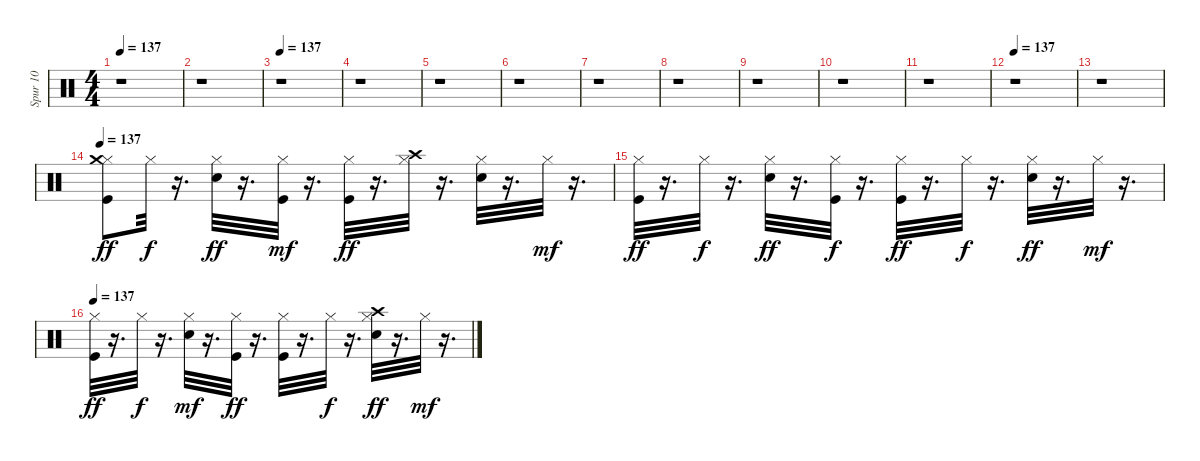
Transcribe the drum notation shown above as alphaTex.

\track ("Spur 10" "Spur 10") {instrument percussion}
\staff {score}
\articulation defaults
\ts (4 4)
\tempo 137
\clef neutral
\ks c
r.1{dy ff} |
r.1 |
\tempo 137
r.1 |
r.1 |
r.1 |
r.1 |
r.1 |
r.1 |
r.1 |
r.1 |
r.1 |
\tempo 137
r.1 |
r.1 |
\tempo 137
("Kick (hit)" "Hi-Hat (closed)" "Crash medium (hit)").8 "Hi-Hat (closed)".32{dy f} r.16{d} ("Electric Snare (hit)" "Hi-Hat (closed)").32{dy ff} r.16{d} ("Kick (hit)" "Hi-Hat (closed)").32{dy mf} r.16{d} ("Kick (hit)" "Hi-Hat (closed)").32{dy ff} r.16{d} ("Crash high (hit)" "Hi-Hat (closed)").32 r.16{d} ("Electric Snare (hit)" "Hi-Hat (closed)").32 r.16{d} "Hi-Hat (closed)".32{dy mf} r.16{d} |
("Kick (hit)" "Hi-Hat (closed)").32{dy ff} r.16{d} "Hi-Hat (closed)".32{dy f} r.16{d} ("Electric Snare (hit)" "Hi-Hat (closed)").32{dy ff} r.16{d} ("Kick (hit)" "Hi-Hat (closed)").32{dy f} r.16{d} ("Kick (hit)" "Hi-Hat (closed)").32{dy ff} r.16{d} "Hi-Hat (closed)".32{dy f} r.16{d} ("Electric Snare (hit)" "Hi-Hat (closed)").32{dy ff} r.16{d} "Hi-Hat (closed)".32{dy mf} r.16{d} |
\tempo 137
("Kick (hit)" "Hi-Hat (closed)").32{dy ff} r.16{d} "Hi-Hat (closed)".32{dy f} r.16{d} ("Electric Snare (hit)" "Hi-Hat (closed)").32{dy mf} r.16{d} ("Kick (hit)" "Hi-Hat (closed)").32{dy ff} r.16{d} ("Kick (hit)" "Hi-Hat (closed)").32 r.16{d} "Hi-Hat (closed)".32{dy f} r.16{d} ("Crash high (hit)" "Electric Snare (hit)" "Hi-Hat (closed)").32{dy ff} r.16{d} "Hi-Hat (closed)".32{dy mf} r.16{d}
